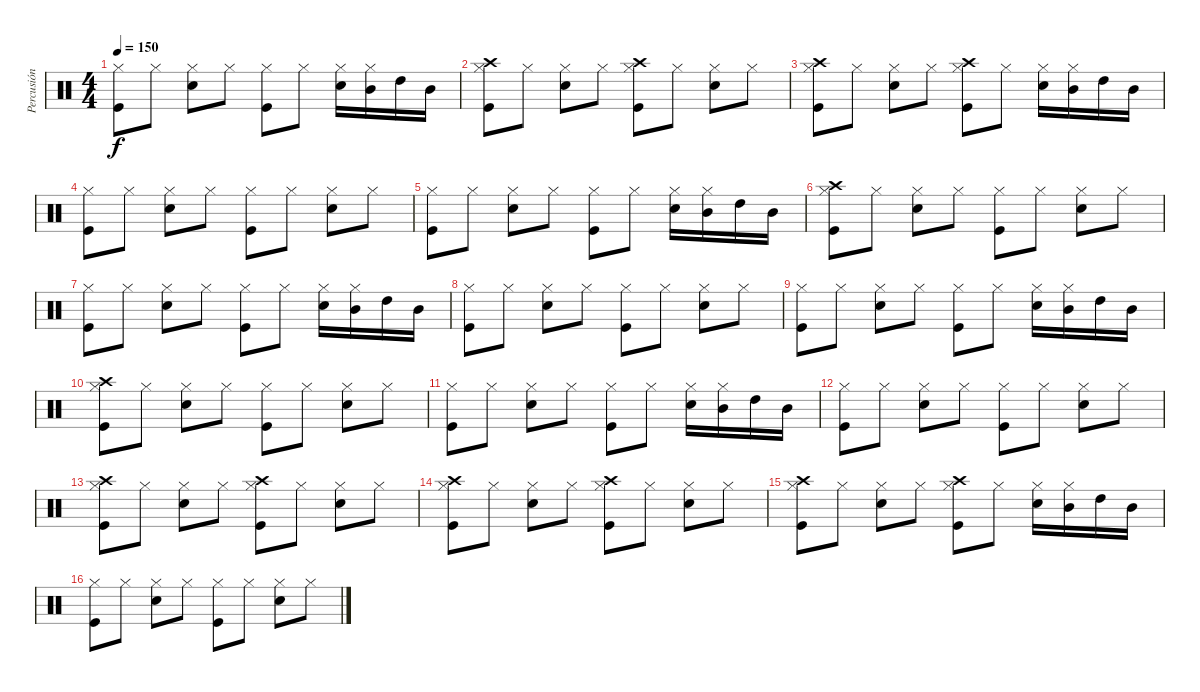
\track ("Percusión" "Percusión") {instrument percussion}
\staff {score}
\articulation defaults
\ts (4 4)
\tempo 150
\clef neutral
\ks c
("Hi-Hat (closed)" "Kick (hit)").8{dy f} "Hi-Hat (closed)".8 ("Hi-Hat (closed)" "Snare (hit) 2").8 "Hi-Hat (closed)".8 ("Hi-Hat (closed)" "Kick (hit)").8 "Hi-Hat (closed)".8 ("Hi-Hat (closed)" "Snare (hit) 2").16 ("Hi-Hat (closed)" "Mid Tom (hit)").16 "High Tom (hit)".16 "Mid Tom (hit)".16 |
("Hi-Hat (closed)" "Crash high (hit)" "Kick (hit)").8 "Hi-Hat (closed)".8 ("Hi-Hat (closed)" "Snare (hit) 2").8 "Hi-Hat (closed)".8 ("Hi-Hat (closed)" "Crash high (hit)" "Kick (hit)").8 "Hi-Hat (closed)".8 ("Hi-Hat (closed)" "Snare (hit) 2").8 "Hi-Hat (closed)".8 |
("Hi-Hat (closed)" "Crash high (hit)" "Kick (hit)").8 "Hi-Hat (closed)".8 ("Hi-Hat (closed)" "Snare (hit) 2").8 "Hi-Hat (closed)".8 ("Hi-Hat (closed)" "Crash high (hit)" "Kick (hit)").8 "Hi-Hat (closed)".8 ("Hi-Hat (closed)" "Snare (hit) 2").16 ("Hi-Hat (closed)" "Mid Tom (hit)").16 "High Tom (hit)".16 "Mid Tom (hit)".16 |
("Hi-Hat (closed)" "Kick (hit)").8 "Hi-Hat (closed)".8 ("Hi-Hat (closed)" "Snare (hit) 2").8 "Hi-Hat (closed)".8 ("Hi-Hat (closed)" "Kick (hit)").8 "Hi-Hat (closed)".8 ("Hi-Hat (closed)" "Snare (hit) 2").8 "Hi-Hat (closed)".8 |
("Hi-Hat (closed)" "Kick (hit)").8 "Hi-Hat (closed)".8 ("Hi-Hat (closed)" "Snare (hit) 2").8 "Hi-Hat (closed)".8 ("Hi-Hat (closed)" "Kick (hit)").8 "Hi-Hat (closed)".8 ("Hi-Hat (closed)" "Snare (hit) 2").16 ("Hi-Hat (closed)" "Mid Tom (hit)").16 "High Tom (hit)".16 "Mid Tom (hit)".16 |
("Hi-Hat (closed)" "Crash high (hit)" "Kick (hit)").8 "Hi-Hat (closed)".8 ("Hi-Hat (closed)" "Snare (hit) 2").8 "Hi-Hat (closed)".8 ("Hi-Hat (closed)" "Kick (hit)").8 "Hi-Hat (closed)".8 ("Hi-Hat (closed)" "Snare (hit) 2").8 "Hi-Hat (closed)".8 |
("Hi-Hat (closed)" "Kick (hit)").8 "Hi-Hat (closed)".8 ("Hi-Hat (closed)" "Snare (hit) 2").8 "Hi-Hat (closed)".8 ("Hi-Hat (closed)" "Kick (hit)").8 "Hi-Hat (closed)".8 ("Hi-Hat (closed)" "Snare (hit) 2").16 ("Hi-Hat (closed)" "Mid Tom (hit)").16 "High Tom (hit)".16 "Mid Tom (hit)".16 |
("Hi-Hat (closed)" "Kick (hit)").8 "Hi-Hat (closed)".8 ("Hi-Hat (closed)" "Snare (hit) 2").8 "Hi-Hat (closed)".8 ("Hi-Hat (closed)" "Kick (hit)").8 "Hi-Hat (closed)".8 ("Hi-Hat (closed)" "Snare (hit) 2").8 "Hi-Hat (closed)".8 |
("Hi-Hat (closed)" "Kick (hit)").8 "Hi-Hat (closed)".8 ("Hi-Hat (closed)" "Snare (hit) 2").8 "Hi-Hat (closed)".8 ("Hi-Hat (closed)" "Kick (hit)").8 "Hi-Hat (closed)".8 ("Hi-Hat (closed)" "Snare (hit) 2").16 ("Hi-Hat (closed)" "Mid Tom (hit)").16 "High Tom (hit)".16 "Mid Tom (hit)".16 |
("Hi-Hat (closed)" "Crash high (hit)" "Kick (hit)").8 "Hi-Hat (closed)".8 ("Hi-Hat (closed)" "Snare (hit) 2").8 "Hi-Hat (closed)".8 ("Hi-Hat (closed)" "Kick (hit)").8 "Hi-Hat (closed)".8 ("Hi-Hat (closed)" "Snare (hit) 2").8 "Hi-Hat (closed)".8 |
("Hi-Hat (closed)" "Kick (hit)").8 "Hi-Hat (closed)".8 ("Hi-Hat (closed)" "Snare (hit) 2").8 "Hi-Hat (closed)".8 ("Hi-Hat (closed)" "Kick (hit)").8 "Hi-Hat (closed)".8 ("Hi-Hat (closed)" "Snare (hit) 2").16 ("Hi-Hat (closed)" "Mid Tom (hit)").16 "High Tom (hit)".16 "Mid Tom (hit)".16 |
("Hi-Hat (closed)" "Kick (hit)").8 "Hi-Hat (closed)".8 ("Hi-Hat (closed)" "Snare (hit) 2").8 "Hi-Hat (closed)".8 ("Hi-Hat (closed)" "Kick (hit)").8 "Hi-Hat (closed)".8 ("Hi-Hat (closed)" "Snare (hit) 2").8 "Hi-Hat (closed)".8 |
("Hi-Hat (closed)" "Crash high (hit)" "Kick (hit)").8 "Hi-Hat (closed)".8 ("Hi-Hat (closed)" "Snare (hit) 2").8 "Hi-Hat (closed)".8 ("Hi-Hat (closed)" "Crash high (hit)" "Kick (hit)").8 "Hi-Hat (closed)".8 ("Hi-Hat (closed)" "Snare (hit) 2").8 "Hi-Hat (closed)".8 |
("Hi-Hat (closed)" "Crash high (hit)" "Kick (hit)").8 "Hi-Hat (closed)".8 ("Hi-Hat (closed)" "Snare (hit) 2").8 "Hi-Hat (closed)".8 ("Hi-Hat (closed)" "Crash high (hit)" "Kick (hit)").8 "Hi-Hat (closed)".8 ("Hi-Hat (closed)" "Snare (hit) 2").8 "Hi-Hat (closed)".8 |
("Hi-Hat (closed)" "Crash high (hit)" "Kick (hit)").8 "Hi-Hat (closed)".8 ("Hi-Hat (closed)" "Snare (hit) 2").8 "Hi-Hat (closed)".8 ("Hi-Hat (closed)" "Crash high (hit)" "Kick (hit)").8 "Hi-Hat (closed)".8 ("Hi-Hat (closed)" "Snare (hit) 2").16 ("Hi-Hat (closed)" "Mid Tom (hit)").16 "High Tom (hit)".16 "Mid Tom (hit)".16 |
("Hi-Hat (closed)" "Kick (hit)").8 "Hi-Hat (closed)".8 ("Hi-Hat (closed)" "Snare (hit) 2").8 "Hi-Hat (closed)".8 ("Hi-Hat (closed)" "Kick (hit)").8 "Hi-Hat (closed)".8 ("Hi-Hat (closed)" "Snare (hit) 2").8 "Hi-Hat (closed)".8
